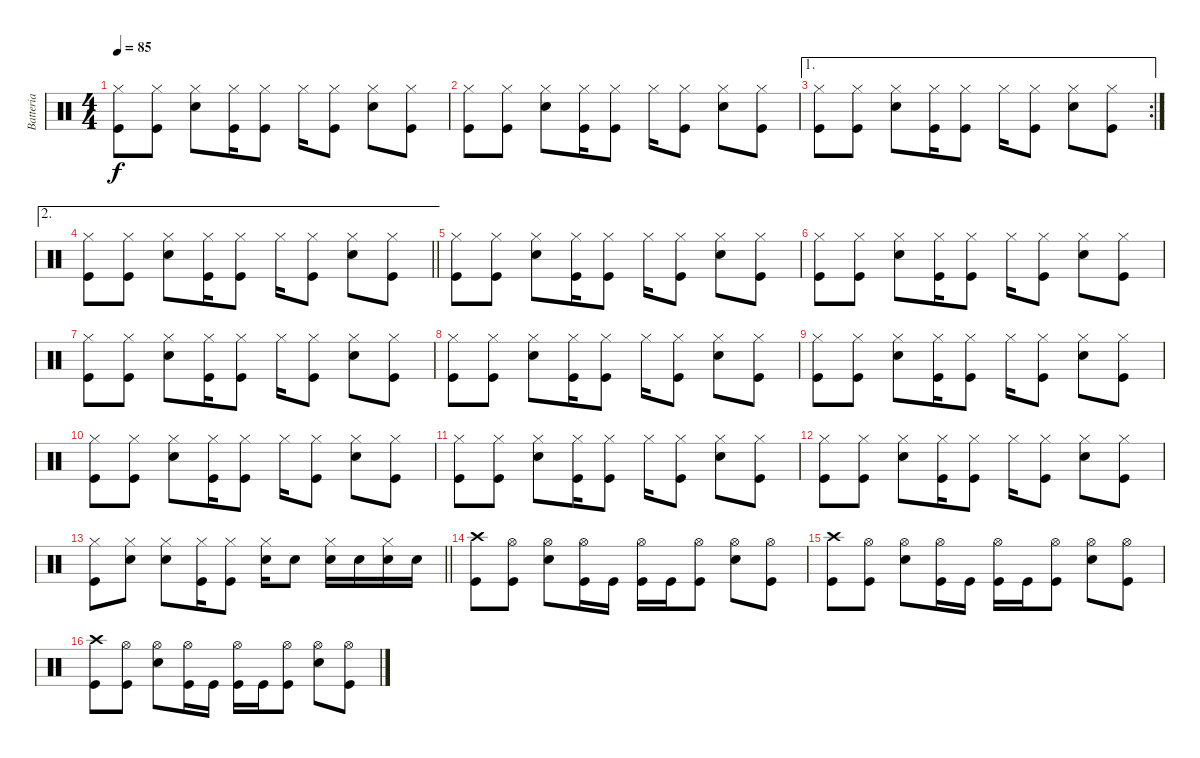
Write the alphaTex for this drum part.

\track ("Batteria" "Batteria") {instrument percussion}
\staff {score}
\articulation defaults
\ts (4 4)
\tempo 85
\clef neutral
\ks c
("Kick (hit)" "Hi-Hat (closed)").8{dy f} ("Kick (hit)" "Hi-Hat (closed)").8 ("Snare (hit) 2" "Hi-Hat (closed)").8 ("Kick (hit)" "Hi-Hat (closed)").16 ("Kick (hit)" "Hi-Hat (closed)").8 "Hi-Hat (closed)".16 ("Kick (hit)" "Hi-Hat (closed)").8 ("Snare (hit) 2" "Hi-Hat (closed)").8 ("Kick (hit)" "Hi-Hat (closed)").8 |
("Kick (hit)" "Hi-Hat (closed)").8 ("Kick (hit)" "Hi-Hat (closed)").8 ("Snare (hit) 2" "Hi-Hat (closed)").8 ("Kick (hit)" "Hi-Hat (closed)").16 ("Kick (hit)" "Hi-Hat (closed)").8 "Hi-Hat (closed)".16 ("Kick (hit)" "Hi-Hat (closed)").8 ("Snare (hit) 2" "Hi-Hat (closed)").8 ("Kick (hit)" "Hi-Hat (closed)").8 |
\ae 1
\rc 2
("Kick (hit)" "Hi-Hat (closed)").8 ("Kick (hit)" "Hi-Hat (closed)").8 ("Snare (hit) 2" "Hi-Hat (closed)").8 ("Kick (hit)" "Hi-Hat (closed)").16 ("Kick (hit)" "Hi-Hat (closed)").8 "Hi-Hat (closed)".16 ("Kick (hit)" "Hi-Hat (closed)").8 ("Snare (hit) 2" "Hi-Hat (closed)").8 ("Kick (hit)" "Hi-Hat (closed)").8 |
\ae 2
\barLineRight lightlight
("Kick (hit)" "Hi-Hat (closed)").8 ("Kick (hit)" "Hi-Hat (closed)").8 ("Snare (hit) 2" "Hi-Hat (closed)").8 ("Kick (hit)" "Hi-Hat (closed)").16 ("Kick (hit)" "Hi-Hat (closed)").8 "Hi-Hat (closed)".16 ("Kick (hit)" "Hi-Hat (closed)").8 ("Snare (hit) 2" "Hi-Hat (closed)").8 ("Kick (hit)" "Hi-Hat (closed)").8 |
("Kick (hit)" "Hi-Hat (closed)").8 ("Kick (hit)" "Hi-Hat (closed)").8 ("Snare (hit) 2" "Hi-Hat (closed)").8 ("Kick (hit)" "Hi-Hat (closed)").16 ("Kick (hit)" "Hi-Hat (closed)").8 "Hi-Hat (closed)".16 ("Kick (hit)" "Hi-Hat (closed)").8 ("Snare (hit) 2" "Hi-Hat (closed)").8 ("Kick (hit)" "Hi-Hat (closed)").8 |
("Kick (hit)" "Hi-Hat (closed)").8 ("Kick (hit)" "Hi-Hat (closed)").8 ("Snare (hit) 2" "Hi-Hat (closed)").8 ("Kick (hit)" "Hi-Hat (closed)").16 ("Kick (hit)" "Hi-Hat (closed)").8 "Hi-Hat (closed)".16 ("Kick (hit)" "Hi-Hat (closed)").8 ("Snare (hit) 2" "Hi-Hat (closed)").8 ("Kick (hit)" "Hi-Hat (closed)").8 |
("Kick (hit)" "Hi-Hat (closed)").8 ("Kick (hit)" "Hi-Hat (closed)").8 ("Snare (hit) 2" "Hi-Hat (closed)").8 ("Kick (hit)" "Hi-Hat (closed)").16 ("Kick (hit)" "Hi-Hat (closed)").8 "Hi-Hat (closed)".16 ("Kick (hit)" "Hi-Hat (closed)").8 ("Snare (hit) 2" "Hi-Hat (closed)").8 ("Kick (hit)" "Hi-Hat (closed)").8 |
("Kick (hit)" "Hi-Hat (closed)").8 ("Kick (hit)" "Hi-Hat (closed)").8 ("Snare (hit) 2" "Hi-Hat (closed)").8 ("Kick (hit)" "Hi-Hat (closed)").16 ("Kick (hit)" "Hi-Hat (closed)").8 "Hi-Hat (closed)".16 ("Kick (hit)" "Hi-Hat (closed)").8 ("Snare (hit) 2" "Hi-Hat (closed)").8 ("Kick (hit)" "Hi-Hat (closed)").8 |
("Kick (hit)" "Hi-Hat (closed)").8 ("Kick (hit)" "Hi-Hat (closed)").8 ("Snare (hit) 2" "Hi-Hat (closed)").8 ("Kick (hit)" "Hi-Hat (closed)").16 ("Kick (hit)" "Hi-Hat (closed)").8 "Hi-Hat (closed)".16 ("Kick (hit)" "Hi-Hat (closed)").8 ("Snare (hit) 2" "Hi-Hat (closed)").8 ("Kick (hit)" "Hi-Hat (closed)").8 |
("Kick (hit)" "Hi-Hat (closed)").8 ("Kick (hit)" "Hi-Hat (closed)").8 ("Snare (hit) 2" "Hi-Hat (closed)").8 ("Kick (hit)" "Hi-Hat (closed)").16 ("Kick (hit)" "Hi-Hat (closed)").8 "Hi-Hat (closed)".16 ("Kick (hit)" "Hi-Hat (closed)").8 ("Snare (hit) 2" "Hi-Hat (closed)").8 ("Kick (hit)" "Hi-Hat (closed)").8 |
("Kick (hit)" "Hi-Hat (closed)").8 ("Kick (hit)" "Hi-Hat (closed)").8 ("Snare (hit) 2" "Hi-Hat (closed)").8 ("Kick (hit)" "Hi-Hat (closed)").16 ("Kick (hit)" "Hi-Hat (closed)").8 "Hi-Hat (closed)".16 ("Kick (hit)" "Hi-Hat (closed)").8 ("Snare (hit) 2" "Hi-Hat (closed)").8 ("Kick (hit)" "Hi-Hat (closed)").8 |
("Kick (hit)" "Hi-Hat (closed)").8 ("Kick (hit)" "Hi-Hat (closed)").8 ("Snare (hit) 2" "Hi-Hat (closed)").8 ("Kick (hit)" "Hi-Hat (closed)").16 ("Kick (hit)" "Hi-Hat (closed)").8 "Hi-Hat (closed)".16 ("Kick (hit)" "Hi-Hat (closed)").8 ("Snare (hit) 2" "Hi-Hat (closed)").8 ("Kick (hit)" "Hi-Hat (closed)").8 |
\barLineRight lightlight
("Kick (hit)" "Hi-Hat (closed)").8 ("Snare (hit) 2" "Hi-Hat (closed)").8 ("Snare (hit) 2" "Hi-Hat (closed)").8 ("Kick (hit)" "Hi-Hat (closed)").16 ("Kick (hit)" "Hi-Hat (closed)").8 ("Snare (hit) 2" "Hi-Hat (closed)").16 "Snare (hit) 2".8 ("Snare (hit) 2" "Hi-Hat (closed)").16 "Snare (hit) 2".16 ("Snare (hit) 2" "Hi-Hat (closed)").16 "Snare (hit) 2".16 |
("Kick (hit)" "Crash high (hit)").8 ("Kick (hit)" "Hi-Hat (open)").8 ("Snare (hit) 2" "Hi-Hat (open)").8 ("Kick (hit)" "Hi-Hat (open)").16 "Kick (hit)".16 ("Kick (hit)" "Hi-Hat (open)").16 "Kick (hit)".16 ("Kick (hit)" "Hi-Hat (open)").8 ("Hi-Hat (open)" "Snare (hit) 2").8 ("Kick (hit)" "Hi-Hat (open)").8 |
("Kick (hit)" "Crash high (hit)").8 ("Kick (hit)" "Hi-Hat (open)").8 ("Snare (hit) 2" "Hi-Hat (open)").8 ("Kick (hit)" "Hi-Hat (open)").16 "Kick (hit)".16 ("Kick (hit)" "Hi-Hat (open)").16 "Kick (hit)".16 ("Kick (hit)" "Hi-Hat (open)").8 ("Hi-Hat (open)" "Snare (hit) 2").8 ("Kick (hit)" "Hi-Hat (open)").8 |
("Kick (hit)" "Crash high (hit)").8 ("Kick (hit)" "Hi-Hat (open)").8 ("Snare (hit) 2" "Hi-Hat (open)").8 ("Kick (hit)" "Hi-Hat (open)").16 "Kick (hit)".16 ("Kick (hit)" "Hi-Hat (open)").16 "Kick (hit)".16 ("Kick (hit)" "Hi-Hat (open)").8 ("Hi-Hat (open)" "Snare (hit) 2").8 ("Kick (hit)" "Hi-Hat (open)").8
